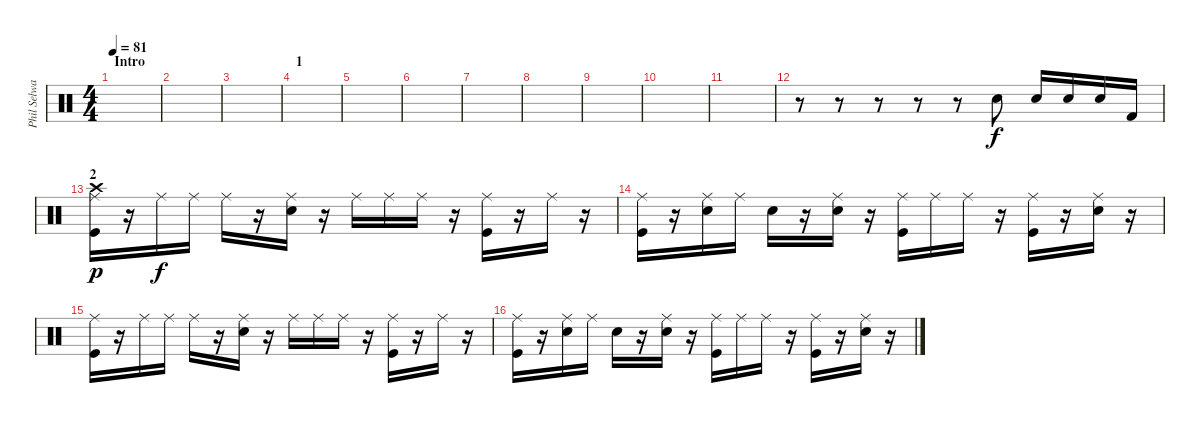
\track ("Phil Selway (Percussions)" "Phil Selwa") {instrument percussion}
\staff {score}
\articulation defaults
\ts (4 4)
\section ("" "Intro")
\tempo 81
\clef neutral
\ks c
|
|
|
\section ("" "1")
|
|
|
|
|
|
|
|
r.8 r.8 r.8 r.8 r.8 "Electric Snare (hit)".8 "Electric Snare (hit)".16 "Electric Snare (hit)".16 "Snare (hit) 2".16 "Kick (hit) 2".16 |
\section ("" "2")
("Ride (middle)" "Crash high (hit)" "Kick (hit)").16{dy p} r.16 "Ride (middle)".16{dy f} "Ride (middle)".16 "Ride (middle)".16 r.16 ("Ride (middle)" "Electric Snare (hit)").16 r.16 "Ride (middle)".16 "Ride (middle)".16 "Ride (middle)".16 r.16 ("Ride (middle)" "Kick (hit)").16 r.16 "Ride (middle)".16 r.16 |
("Ride (middle)" "Kick (hit)").16 r.16 ("Ride (middle)" "Electric Snare (hit)").16 "Ride (middle)".16 "Snare (hit)".16 r.16 ("Ride (middle)" "Electric Snare (hit)").16 r.16 ("Ride (middle)" "Kick (hit)").16 "Ride (middle)".16 "Ride (middle)".16 r.16 ("Ride (middle)" "Kick (hit)").16 r.16 ("Ride (middle)" "Electric Snare (hit)").16 r.16 |
("Ride (middle)" "Kick (hit)").16 r.16 "Ride (middle)".16 "Ride (middle)".16 "Ride (middle)".16 r.16 ("Ride (middle)" "Electric Snare (hit)").16 r.16 "Ride (middle)".16 "Ride (middle)".16 "Ride (middle)".16 r.16 ("Ride (middle)" "Kick (hit)").16 r.16 "Ride (middle)".16 r.16 |
("Ride (middle)" "Kick (hit)").16 r.16 ("Ride (middle)" "Electric Snare (hit)").16 "Ride (middle)".16 "Snare (hit)".16 r.16 ("Ride (middle)" "Electric Snare (hit)").16 r.16 ("Ride (middle)" "Kick (hit)").16 "Ride (middle)".16 "Ride (middle)".16 r.16 ("Ride (middle)" "Kick (hit)").16 r.16 ("Ride (middle)" "Electric Snare (hit)").16 r.16
